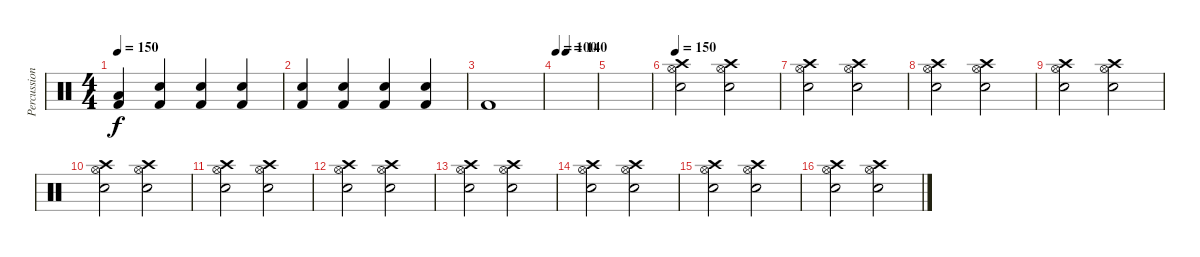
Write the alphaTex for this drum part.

\track ("Percussion" "Percussion") {instrument percussion}
\staff {score}
\articulation defaults
\ts (4 4)
\tempo 150
\clef neutral
\ks c
("Kick (hit) 2" "Low Tom (hit)").4{dy f} ("Kick (hit) 2" "Snare (hit) 2").4 ("Kick (hit) 2" "Snare (hit) 2").4 ("Kick (hit) 2" "Snare (hit) 2").4 |
("Kick (hit) 2" "Snare (hit) 2").4 ("Kick (hit) 2" "Snare (hit) 2").4 ("Kick (hit) 2" "Snare (hit) 2").4 ("Kick (hit) 2" "Snare (hit) 2").4 |
"Kick (hit) 2".1 |
\tempo 100
\tempo (140 0.25)
|
|
\tempo 150
("Crash high (hit)" "Snare (hit) 2" "Hi-Hat (open)").2{volume 16} ("Crash high (hit)" "Snare (hit) 2" "Hi-Hat (open)").2 |
("Crash high (hit)" "Snare (hit) 2" "Hi-Hat (open)").2 ("Crash high (hit)" "Snare (hit) 2" "Hi-Hat (open)").2 |
("Crash high (hit)" "Snare (hit) 2" "Hi-Hat (open)").2{volume 16} ("Crash high (hit)" "Snare (hit) 2" "Hi-Hat (open)").2 |
("Crash high (hit)" "Snare (hit) 2" "Hi-Hat (open)").2 ("Crash high (hit)" "Snare (hit) 2" "Hi-Hat (open)").2 |
("Crash high (hit)" "Snare (hit) 2" "Hi-Hat (open)").2{volume 16} ("Crash high (hit)" "Snare (hit) 2" "Hi-Hat (open)").2 |
("Crash high (hit)" "Snare (hit) 2" "Hi-Hat (open)").2 ("Crash high (hit)" "Snare (hit) 2" "Hi-Hat (open)").2 |
("Crash high (hit)" "Snare (hit) 2" "Hi-Hat (open)").2{volume 16} ("Crash high (hit)" "Snare (hit) 2" "Hi-Hat (open)").2 |
("Crash high (hit)" "Snare (hit) 2" "Hi-Hat (open)").2 ("Crash high (hit)" "Snare (hit) 2" "Hi-Hat (open)").2 |
("Crash high (hit)" "Snare (hit) 2" "Hi-Hat (open)").2{volume 16} ("Crash high (hit)" "Snare (hit) 2" "Hi-Hat (open)").2 |
("Crash high (hit)" "Snare (hit) 2" "Hi-Hat (open)").2 ("Crash high (hit)" "Snare (hit) 2" "Hi-Hat (open)").2 |
("Crash high (hit)" "Snare (hit) 2" "Hi-Hat (open)").2{volume 16} ("Crash high (hit)" "Snare (hit) 2" "Hi-Hat (open)").2
